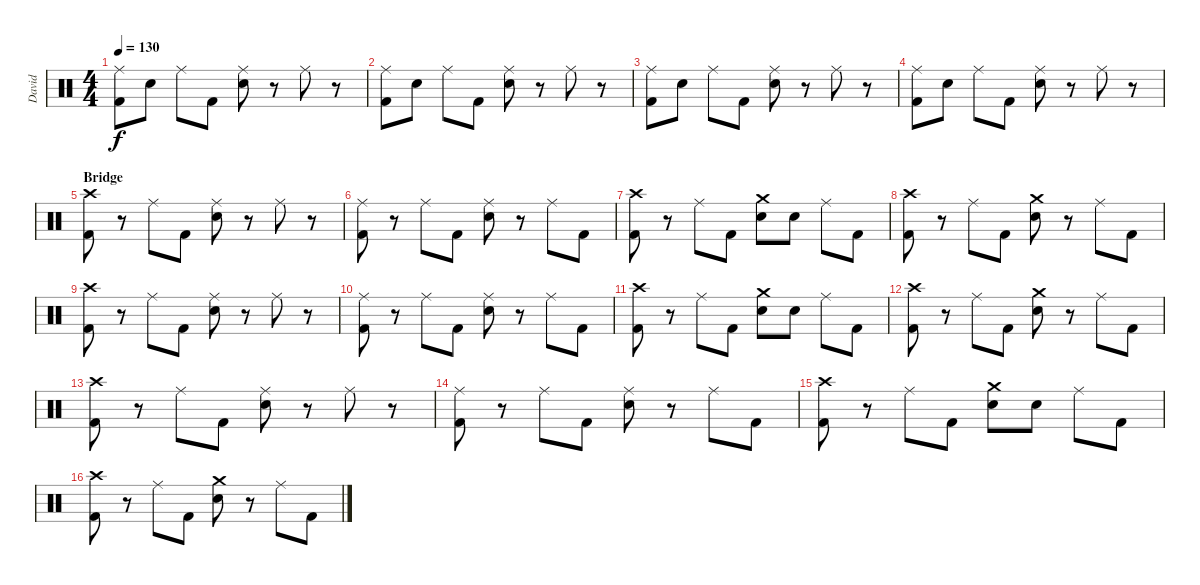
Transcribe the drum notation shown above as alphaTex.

\track ("David" "David") {instrument percussion}
\staff {score}
\articulation defaults
\ts (4 4)
\tempo 130
\clef neutral
\ks c
("Ride (middle)" "Kick (hit) 2").8{dy f} "Snare (hit) 2".8 "Ride (middle)".8 "Kick (hit) 2".8 ("Ride (middle)" "Snare (hit) 2").8 r.8 "Ride (middle)".8 r.8 |
("Ride (middle)" "Kick (hit) 2").8 "Snare (hit) 2".8 "Ride (middle)".8 "Kick (hit) 2".8 ("Ride (middle)" "Snare (hit) 2").8 r.8 "Ride (middle)".8 r.8 |
("Ride (middle)" "Kick (hit) 2").8 "Snare (hit) 2".8 "Ride (middle)".8 "Kick (hit) 2".8 ("Ride (middle)" "Snare (hit) 2").8 r.8 "Ride (middle)".8 r.8 |
("Ride (middle)" "Kick (hit) 2").8 "Snare (hit) 2".8 "Ride (middle)".8 "Kick (hit) 2".8 ("Ride (middle)" "Snare (hit) 2").8 r.8 "Ride (middle)".8 r.8 |
\section ("" "Bridge")
("Crash high (hit)" "Kick (hit) 2").8 r.8 "Ride (middle)".8 "Kick (hit) 2".8 ("Ride (middle)" "Snare (hit) 2").8 r.8 "Ride (middle)".8 r.8 |
("Ride (middle)" "Kick (hit) 2").8 r.8 "Ride (middle)".8 "Kick (hit) 2".8 ("Ride (middle)" "Snare (hit) 2").8 r.8 "Ride (middle)".8 "Kick (hit) 2".8 |
("Crash high (hit)" "Kick (hit) 2").8 r.8 "Ride (middle)".8 "Kick (hit) 2".8 ("Crash medium (hit)" "Snare (hit) 2").8 "Snare (hit) 2".8 "Ride (middle)".8 "Kick (hit) 2".8 |
("Crash high (hit)" "Kick (hit) 2").8 r.8 "Ride (middle)".8 "Kick (hit) 2".8 ("Crash medium (hit)" "Snare (hit) 2").8 r.8 "Ride (middle)".8 "Kick (hit) 2".8 |
("Crash high (hit)" "Kick (hit) 2").8 r.8 "Ride (middle)".8 "Kick (hit) 2".8 ("Ride (middle)" "Snare (hit) 2").8 r.8 "Ride (middle)".8 r.8 |
("Ride (middle)" "Kick (hit) 2").8 r.8 "Ride (middle)".8 "Kick (hit) 2".8 ("Ride (middle)" "Snare (hit) 2").8 r.8 "Ride (middle)".8 "Kick (hit) 2".8 |
("Crash high (hit)" "Kick (hit) 2").8 r.8 "Ride (middle)".8 "Kick (hit) 2".8 ("Crash medium (hit)" "Snare (hit) 2").8 "Snare (hit) 2".8 "Ride (middle)".8 "Kick (hit) 2".8 |
("Crash high (hit)" "Kick (hit) 2").8 r.8 "Ride (middle)".8 "Kick (hit) 2".8 ("Crash medium (hit)" "Snare (hit) 2").8 r.8 "Ride (middle)".8 "Kick (hit) 2".8 |
("Crash high (hit)" "Kick (hit) 2").8 r.8 "Ride (middle)".8 "Kick (hit) 2".8 ("Ride (middle)" "Snare (hit) 2").8 r.8 "Ride (middle)".8 r.8 |
("Ride (middle)" "Kick (hit) 2").8 r.8 "Ride (middle)".8 "Kick (hit) 2".8 ("Ride (middle)" "Snare (hit) 2").8 r.8 "Ride (middle)".8 "Kick (hit) 2".8 |
("Crash high (hit)" "Kick (hit) 2").8 r.8 "Ride (middle)".8 "Kick (hit) 2".8 ("Crash medium (hit)" "Snare (hit) 2").8 "Snare (hit) 2".8 "Ride (middle)".8 "Kick (hit) 2".8 |
("Crash high (hit)" "Kick (hit) 2").8 r.8 "Ride (middle)".8 "Kick (hit) 2".8 ("Crash medium (hit)" "Snare (hit) 2").8 r.8 "Ride (middle)".8 "Kick (hit) 2".8
